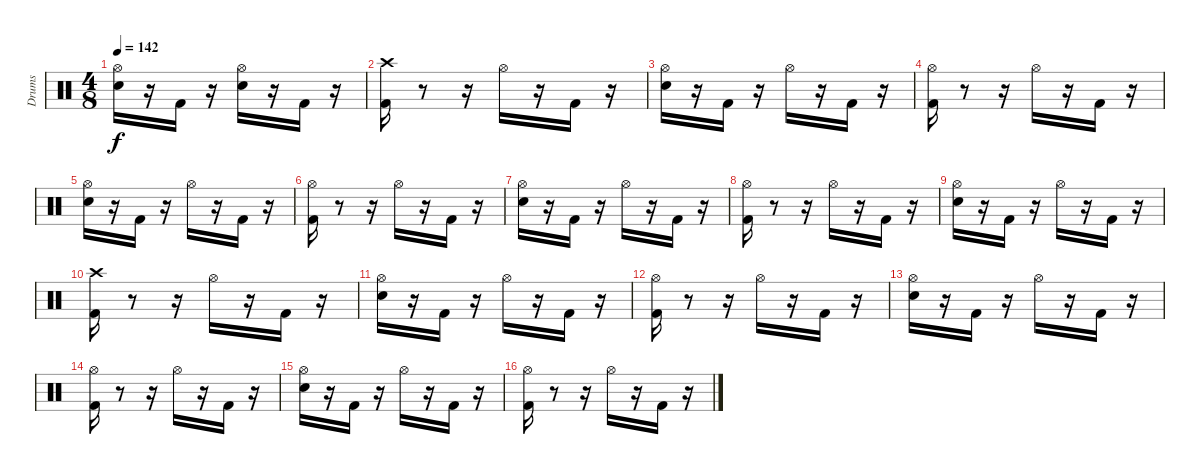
\track ("Drums" "Drums") {instrument percussion}
\staff {score}
\articulation defaults
\ts (4 8)
\tempo 142
\clef neutral
\ks c
("Electric Snare (hit)" "Hi-Hat (open)").16{dy f} r.16 "Kick (hit) 2".16 r.16 ("Hi-Hat (open)" "Electric Snare (hit)").16 r.16 "Kick (hit) 2".16 r.16 |
("Kick (hit) 2" "Crash high (hit)").16 r.8 r.16 "Hi-Hat (open)".16 r.16 "Kick (hit) 2".16 r.16 |
("Electric Snare (hit)" "Hi-Hat (open)").16 r.16 "Kick (hit) 2".16 r.16 "Hi-Hat (open)".16 r.16 "Kick (hit) 2".16 r.16 |
("Kick (hit) 2" "Hi-Hat (open)").16 r.8 r.16 "Hi-Hat (open)".16 r.16 "Kick (hit) 2".16 r.16 |
("Electric Snare (hit)" "Hi-Hat (open)").16 r.16 "Kick (hit) 2".16 r.16 "Hi-Hat (open)".16 r.16 "Kick (hit) 2".16 r.16 |
("Kick (hit) 2" "Hi-Hat (open)").16 r.8 r.16 "Hi-Hat (open)".16 r.16 "Kick (hit) 2".16 r.16 |
("Electric Snare (hit)" "Hi-Hat (open)").16 r.16 "Kick (hit) 2".16 r.16 "Hi-Hat (open)".16 r.16 "Kick (hit) 2".16 r.16 |
("Kick (hit) 2" "Hi-Hat (open)").16 r.8 r.16 "Hi-Hat (open)".16 r.16 "Kick (hit) 2".16 r.16 |
("Electric Snare (hit)" "Hi-Hat (open)").16 r.16 "Kick (hit) 2".16 r.16 "Hi-Hat (open)".16 r.16 "Kick (hit) 2".16 r.16 |
("Kick (hit) 2" "Crash high (hit)").16 r.8 r.16 "Hi-Hat (open)".16 r.16 "Kick (hit) 2".16 r.16 |
("Electric Snare (hit)" "Hi-Hat (open)").16 r.16 "Kick (hit) 2".16 r.16 "Hi-Hat (open)".16 r.16 "Kick (hit) 2".16 r.16 |
("Kick (hit) 2" "Hi-Hat (open)").16 r.8 r.16 "Hi-Hat (open)".16 r.16 "Kick (hit) 2".16 r.16 |
("Electric Snare (hit)" "Hi-Hat (open)").16 r.16 "Kick (hit) 2".16 r.16 "Hi-Hat (open)".16 r.16 "Kick (hit) 2".16 r.16 |
("Kick (hit) 2" "Hi-Hat (open)").16 r.8 r.16 "Hi-Hat (open)".16 r.16 "Kick (hit) 2".16 r.16 |
("Electric Snare (hit)" "Hi-Hat (open)").16 r.16 "Kick (hit) 2".16 r.16 "Hi-Hat (open)".16 r.16 "Kick (hit) 2".16 r.16 |
("Kick (hit) 2" "Hi-Hat (open)").16 r.8 r.16 "Hi-Hat (open)".16 r.16 "Kick (hit) 2".16 r.16
